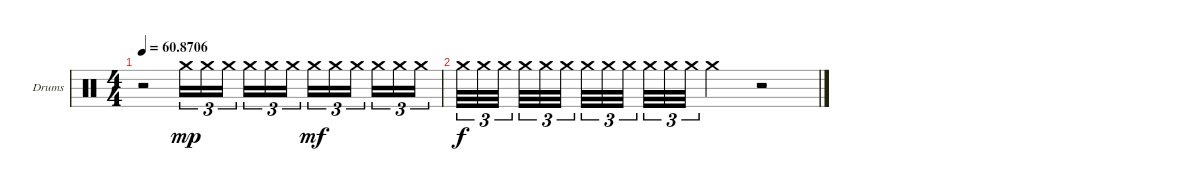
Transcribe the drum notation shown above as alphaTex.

\defaultSystemsLayout 4
\bracketExtendMode nobrackets
\firstSystemTrackNameOrientation horizontal
\otherSystemsTrackNameOrientation horizontal
\track ("Drumkit" "Drums") {instrument percussion}
\staff {score}
\articulation defaults
\ts (4 4)
\tempo
60.8706
\accidentals auto
\clef neutral
\ottava regular
\simile none
\ks c
r.2{dy mf} "Crash medium (hit)".16{tu (3 2) dy mp} "Crash medium (hit)".16{tu (3 2)} "Crash medium (hit)".16{tu (3 2)} "Crash medium (hit)".16{tu (3 2)} "Crash medium (hit)".16{tu (3 2)} "Crash medium (hit)".16{tu (3 2)} "Crash medium (hit)".16{tu (3 2) dy mf} "Crash medium (hit)".16{tu (3 2)} "Crash medium (hit)".16{tu (3 2)} "Crash medium (hit)".16{tu (3 2)} "Crash medium (hit)".16{tu (3 2)} "Crash medium (hit)".16{tu (3 2)} |
"Crash medium (hit)".32{tu (3 2) dy f} "Crash medium (hit)".32{tu (3 2)} "Crash medium (hit)".32{tu (3 2)} "Crash medium (hit)".32{tu (3 2)} "Crash medium (hit)".32{tu (3 2)} "Crash medium (hit)".32{tu (3 2)} "Crash medium (hit)".32{tu (3 2)} "Crash medium (hit)".32{tu (3 2)} "Crash medium (hit)".32{tu (3 2)} "Crash medium (hit)".32{tu (3 2)} "Crash medium (hit)".32{tu (3 2)} "Crash medium (hit)".32{tu (3 2)} "Crash medium (hit)".4 r.2
